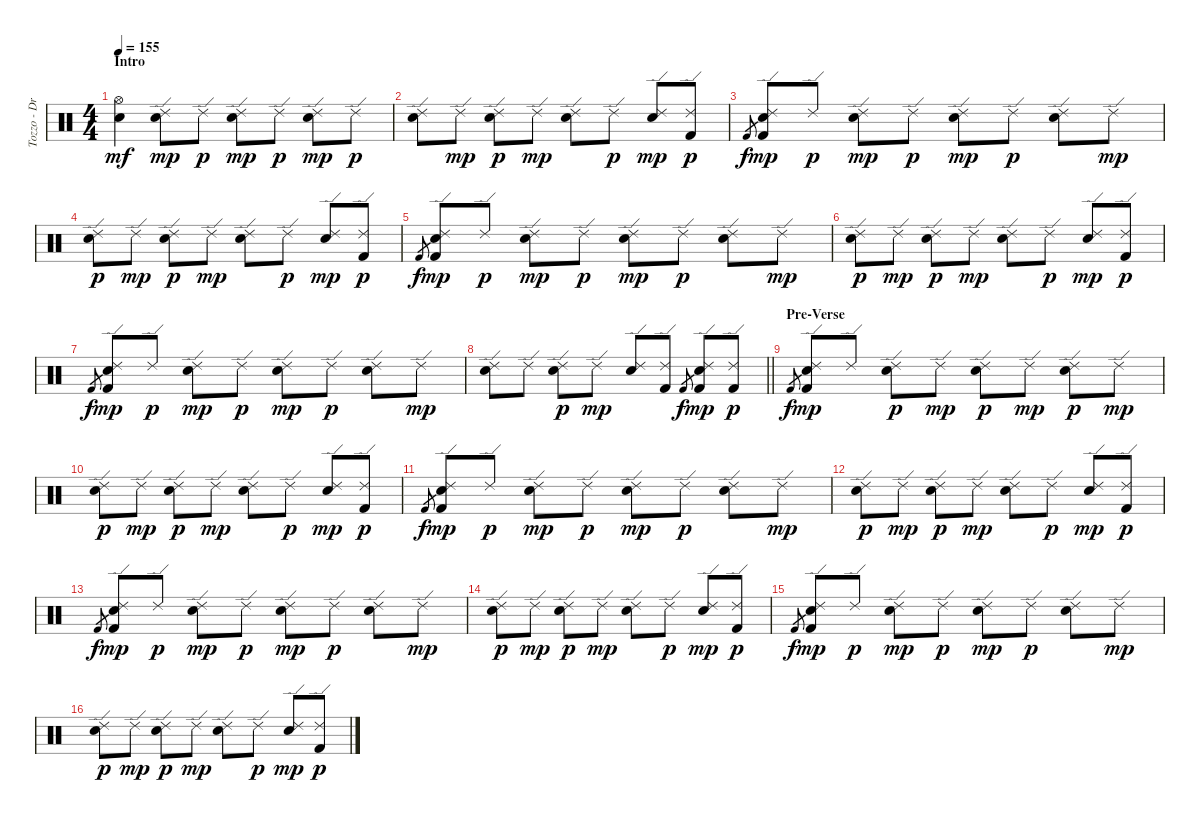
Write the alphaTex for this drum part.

\track ("Tozzo - Drums" "Tozzo - Dr") {instrument percussion}
\staff {score}
\articulation defaults
\ts (4 4)
\section ("" "Intro")
\tempo 155
\clef neutral
\ks c
("Hi-Hat (open)" "Snare (hit) 2").4{dy mf} ("Ride (edge) 2" "Snare (hit) 2").8{dy mp} "Ride (edge) 2".8{dy p} ("Ride (edge) 2" "Snare (hit) 2").8{dy mp} "Ride (edge) 2".8{dy p} ("Ride (edge) 2" "Snare (hit) 2").8{dy mp} "Ride (edge) 2".8{dy p} |
("Ride (edge) 2" "Snare (hit) 2").8 "Ride (edge) 2".8{dy mp} ("Ride (edge) 2" "Snare (hit) 2").8{dy p} "Ride (edge) 2".8{dy mp} ("Ride (edge) 2" "Snare (hit) 2").8 "Ride (edge) 2".8{dy p} ("Ride (edge) 2" "Snare (hit) 2").8{dy mp} ("Ride (edge) 2" "Kick (hit) 2").8{dy p} |
"Kick (hit) 2".8{gr dy f} ("Ride (edge) 2" "Snare (hit) 2" "Kick (hit) 2").8{dy mp} "Ride (edge) 2".8{dy p} ("Ride (edge) 2" "Snare (hit) 2").8{dy mp} "Ride (edge) 2".8{dy p} ("Ride (edge) 2" "Snare (hit) 2").8{dy mp} "Ride (edge) 2".8{dy p} ("Ride (edge) 2" "Snare (hit) 2").8 "Ride (edge) 2".8{dy mp} |
("Ride (edge) 2" "Snare (hit) 2").8{dy p} "Ride (edge) 2".8{dy mp} ("Ride (edge) 2" "Snare (hit) 2").8{dy p} "Ride (edge) 2".8{dy mp} ("Ride (edge) 2" "Snare (hit) 2").8 "Ride (edge) 2".8{dy p} ("Ride (edge) 2" "Snare (hit) 2").8{dy mp} ("Ride (edge) 2" "Kick (hit) 2").8{dy p} |
"Kick (hit) 2".8{gr dy f} ("Ride (edge) 2" "Snare (hit) 2" "Kick (hit) 2").8{dy mp} "Ride (edge) 2".8{dy p} ("Ride (edge) 2" "Snare (hit) 2").8{dy mp} "Ride (edge) 2".8{dy p} ("Ride (edge) 2" "Snare (hit) 2").8{dy mp} "Ride (edge) 2".8{dy p} ("Ride (edge) 2" "Snare (hit) 2").8 "Ride (edge) 2".8{dy mp} |
("Ride (edge) 2" "Snare (hit) 2").8{dy p} "Ride (edge) 2".8{dy mp} ("Ride (edge) 2" "Snare (hit) 2").8{dy p} "Ride (edge) 2".8{dy mp} ("Ride (edge) 2" "Snare (hit) 2").8 "Ride (edge) 2".8{dy p} ("Ride (edge) 2" "Snare (hit) 2").8{dy mp} ("Ride (edge) 2" "Kick (hit) 2").8{dy p} |
"Kick (hit) 2".8{gr dy f} ("Ride (edge) 2" "Snare (hit) 2" "Kick (hit) 2").8{dy mp} "Ride (edge) 2".8{dy p} ("Ride (edge) 2" "Snare (hit) 2").8{dy mp} "Ride (edge) 2".8{dy p} ("Ride (edge) 2" "Snare (hit) 2").8{dy mp} "Ride (edge) 2".8{dy p} ("Ride (edge) 2" "Snare (hit) 2").8 "Ride (edge) 2".8{dy mp} |
\barLineRight lightlight
("Ride (edge) 2" "Snare (hit) 2").8 "Ride (edge) 2".8 ("Ride (edge) 2" "Snare (hit) 2").8{dy p} "Ride (edge) 2".8{dy mp} ("Ride (edge) 2" "Snare (hit) 2").8 ("Ride (edge) 2" "Kick (hit) 2").8 "Kick (hit) 2".8{gr dy f} ("Ride (edge) 2" "Snare (hit) 2" "Kick (hit) 2").8{dy mp} ("Ride (edge) 2" "Kick (hit) 2").8{dy p} |
\section ("" "Pre-Verse")
"Kick (hit) 2".8{gr dy f} ("Ride (edge) 2" "Snare (hit) 2" "Kick (hit) 2").8{dy mp} "Ride (edge) 2".8 ("Ride (edge) 2" "Snare (hit) 2").8{dy p} "Ride (edge) 2".8{dy mp} ("Ride (edge) 2" "Snare (hit) 2").8{dy p} "Ride (edge) 2".8{dy mp} ("Ride (edge) 2" "Snare (hit) 2").8{dy p} "Ride (edge) 2".8{dy mp} |
("Ride (edge) 2" "Snare (hit) 2").8{dy p} "Ride (edge) 2".8{dy mp} ("Ride (edge) 2" "Snare (hit) 2").8{dy p} "Ride (edge) 2".8{dy mp} ("Ride (edge) 2" "Snare (hit) 2").8 "Ride (edge) 2".8{dy p} ("Ride (edge) 2" "Snare (hit) 2").8{dy mp} ("Ride (edge) 2" "Kick (hit) 2").8{dy p} |
"Kick (hit) 2".8{gr dy f} ("Ride (edge) 2" "Snare (hit) 2" "Kick (hit) 2").8{dy mp} "Ride (edge) 2".8{dy p} ("Ride (edge) 2" "Snare (hit) 2").8{dy mp} "Ride (edge) 2".8{dy p} ("Ride (edge) 2" "Snare (hit) 2").8{dy mp} "Ride (edge) 2".8{dy p} ("Ride (edge) 2" "Snare (hit) 2").8 "Ride (edge) 2".8{dy mp} |
("Ride (edge) 2" "Snare (hit) 2").8{dy p} "Ride (edge) 2".8{dy mp} ("Ride (edge) 2" "Snare (hit) 2").8{dy p} "Ride (edge) 2".8{dy mp} ("Ride (edge) 2" "Snare (hit) 2").8 "Ride (edge) 2".8{dy p} ("Ride (edge) 2" "Snare (hit) 2").8{dy mp} ("Ride (edge) 2" "Kick (hit) 2").8{dy p} |
"Kick (hit) 2".8{gr dy f} ("Ride (edge) 2" "Snare (hit) 2" "Kick (hit) 2").8{dy mp} "Ride (edge) 2".8{dy p} ("Ride (edge) 2" "Snare (hit) 2").8{dy mp} "Ride (edge) 2".8{dy p} ("Ride (edge) 2" "Snare (hit) 2").8{dy mp} "Ride (edge) 2".8{dy p} ("Ride (edge) 2" "Snare (hit) 2").8 "Ride (edge) 2".8{dy mp} |
("Ride (edge) 2" "Snare (hit) 2").8{dy p} "Ride (edge) 2".8{dy mp} ("Ride (edge) 2" "Snare (hit) 2").8{dy p} "Ride (edge) 2".8{dy mp} ("Ride (edge) 2" "Snare (hit) 2").8 "Ride (edge) 2".8{dy p} ("Ride (edge) 2" "Snare (hit) 2").8{dy mp} ("Ride (edge) 2" "Kick (hit) 2").8{dy p} |
"Kick (hit) 2".8{gr dy f} ("Ride (edge) 2" "Snare (hit) 2" "Kick (hit) 2").8{dy mp} "Ride (edge) 2".8{dy p} ("Ride (edge) 2" "Snare (hit) 2").8{dy mp} "Ride (edge) 2".8{dy p} ("Ride (edge) 2" "Snare (hit) 2").8{dy mp} "Ride (edge) 2".8{dy p} ("Ride (edge) 2" "Snare (hit) 2").8 "Ride (edge) 2".8{dy mp} |
("Ride (edge) 2" "Snare (hit) 2").8{dy p} "Ride (edge) 2".8{dy mp} ("Ride (edge) 2" "Snare (hit) 2").8{dy p} "Ride (edge) 2".8{dy mp} ("Ride (edge) 2" "Snare (hit) 2").8 "Ride (edge) 2".8{dy p} ("Ride (edge) 2" "Snare (hit) 2").8{dy mp} ("Ride (edge) 2" "Kick (hit) 2").8{dy p}
